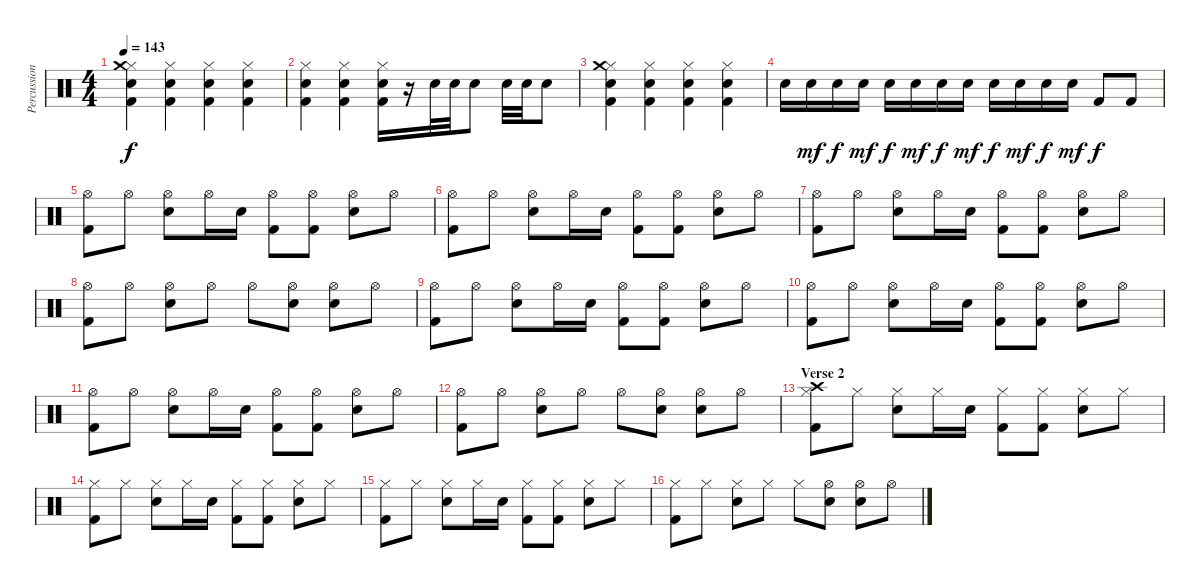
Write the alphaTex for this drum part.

\track ("Percussion" "Percussion") {instrument percussion}
\staff {score}
\articulation defaults
\ts (4 4)
\tempo 143
\clef neutral
\ks c
("Hi-Hat (closed)" "Crash medium (hit)" "Electric Snare (hit)" "Kick (hit) 2").4{dy f} ("Hi-Hat (closed)" "Electric Snare (hit)" "Kick (hit) 2").4 ("Hi-Hat (closed)" "Electric Snare (hit)" "Kick (hit) 2").4 ("Hi-Hat (closed)" "Electric Snare (hit)" "Kick (hit) 2").4 |
("Hi-Hat (closed)" "Electric Snare (hit)" "Kick (hit) 2").4 ("Hi-Hat (closed)" "Electric Snare (hit)" "Kick (hit) 2").4 ("Hi-Hat (closed)" "Electric Snare (hit)" "Kick (hit) 2").16 r.16 "Electric Snare (hit)".32 "Electric Snare (hit)".32 "Electric Snare (hit)".8 "Electric Snare (hit)".32 "Electric Snare (hit)".32 "Electric Snare (hit)".8 |
("Hi-Hat (closed)" "Crash medium (hit)" "Electric Snare (hit)" "Kick (hit) 2").4 ("Hi-Hat (closed)" "Electric Snare (hit)" "Kick (hit) 2").4 ("Hi-Hat (closed)" "Electric Snare (hit)" "Kick (hit) 2").4 ("Hi-Hat (closed)" "Electric Snare (hit)" "Kick (hit) 2").4 |
"Electric Snare (hit)".16 "Electric Snare (hit)".16{dy mf} "Electric Snare (hit)".16{dy f} "Electric Snare (hit)".16{dy mf} "Electric Snare (hit)".16{dy f} "Electric Snare (hit)".16{dy mf} "Electric Snare (hit)".16{dy f} "Electric Snare (hit)".16{dy mf} "Electric Snare (hit)".16{dy f} "Electric Snare (hit)".16{dy mf} "Electric Snare (hit)".16{dy f} "Electric Snare (hit)".16{dy mf} "Kick (hit) 2".8{dy f} "Kick (hit) 2".8 |
("Hi-Hat (open)" "Kick (hit) 2").8 "Hi-Hat (open)".8 ("Hi-Hat (open)" "Electric Snare (hit)").8 "Hi-Hat (open)".16 "Electric Snare (hit)".16 ("Hi-Hat (open)" "Kick (hit) 2").8 ("Hi-Hat (open)" "Kick (hit) 2").8 ("Hi-Hat (open)" "Electric Snare (hit)").8 "Hi-Hat (open)".8 |
("Hi-Hat (open)" "Kick (hit) 2").8 "Hi-Hat (open)".8 ("Hi-Hat (open)" "Electric Snare (hit)").8 "Hi-Hat (open)".16 "Electric Snare (hit)".16 ("Hi-Hat (open)" "Kick (hit) 2").8 ("Hi-Hat (open)" "Kick (hit) 2").8 ("Hi-Hat (open)" "Electric Snare (hit)").8 "Hi-Hat (open)".8 |
("Hi-Hat (open)" "Kick (hit) 2").8 "Hi-Hat (open)".8 ("Hi-Hat (open)" "Electric Snare (hit)").8 "Hi-Hat (open)".16 "Electric Snare (hit)".16 ("Hi-Hat (open)" "Kick (hit) 2").8 ("Hi-Hat (open)" "Kick (hit) 2").8 ("Hi-Hat (open)" "Electric Snare (hit)").8 "Hi-Hat (open)".8 |
("Hi-Hat (open)" "Kick (hit) 2").8 "Hi-Hat (open)".8 ("Hi-Hat (open)" "Electric Snare (hit)").8 "Hi-Hat (open)".8 "Hi-Hat (open)".8 ("Hi-Hat (open)" "Electric Snare (hit)").8 ("Hi-Hat (open)" "Electric Snare (hit)").8 "Hi-Hat (open)".8 |
("Hi-Hat (open)" "Kick (hit) 2").8 "Hi-Hat (open)".8 ("Hi-Hat (open)" "Electric Snare (hit)").8 "Hi-Hat (open)".16 "Electric Snare (hit)".16 ("Hi-Hat (open)" "Kick (hit) 2").8 ("Hi-Hat (open)" "Kick (hit) 2").8 ("Hi-Hat (open)" "Electric Snare (hit)").8 "Hi-Hat (open)".8 |
("Hi-Hat (open)" "Kick (hit) 2").8 "Hi-Hat (open)".8 ("Hi-Hat (open)" "Electric Snare (hit)").8 "Hi-Hat (open)".16 "Electric Snare (hit)".16 ("Hi-Hat (open)" "Kick (hit) 2").8 ("Hi-Hat (open)" "Kick (hit) 2").8 ("Hi-Hat (open)" "Electric Snare (hit)").8 "Hi-Hat (open)".8 |
("Hi-Hat (open)" "Kick (hit) 2").8 "Hi-Hat (open)".8 ("Hi-Hat (open)" "Electric Snare (hit)").8 "Hi-Hat (open)".16 "Electric Snare (hit)".16 ("Hi-Hat (open)" "Kick (hit) 2").8 ("Hi-Hat (open)" "Kick (hit) 2").8 ("Hi-Hat (open)" "Electric Snare (hit)").8 "Hi-Hat (open)".8 |
("Hi-Hat (open)" "Kick (hit) 2").8 "Hi-Hat (open)".8 ("Hi-Hat (open)" "Electric Snare (hit)").8 "Hi-Hat (open)".8 "Hi-Hat (open)".8 ("Hi-Hat (open)" "Electric Snare (hit)").8 ("Hi-Hat (open)" "Electric Snare (hit)").8 "Hi-Hat (open)".8 |
\section ("" "Verse 2")
("Hi-Hat (closed)" "Crash high (hit)" "Kick (hit) 2").8 "Hi-Hat (closed)".8 ("Hi-Hat (closed)" "Electric Snare (hit)").8 "Hi-Hat (closed)".16 "Electric Snare (hit)".16 ("Hi-Hat (closed)" "Kick (hit) 2").8 ("Hi-Hat (closed)" "Kick (hit) 2").8 ("Hi-Hat (closed)" "Electric Snare (hit)").8 "Hi-Hat (closed)".8 |
("Hi-Hat (closed)" "Kick (hit) 2").8 "Hi-Hat (closed)".8 ("Hi-Hat (closed)" "Electric Snare (hit)").8 "Hi-Hat (closed)".16 "Electric Snare (hit)".16 ("Hi-Hat (closed)" "Kick (hit) 2").8 ("Hi-Hat (closed)" "Kick (hit) 2").8 ("Hi-Hat (closed)" "Electric Snare (hit)").8 "Hi-Hat (closed)".8 |
("Hi-Hat (closed)" "Kick (hit) 2").8 "Hi-Hat (closed)".8 ("Hi-Hat (closed)" "Electric Snare (hit)").8 "Hi-Hat (closed)".16 "Electric Snare (hit)".16 ("Hi-Hat (closed)" "Kick (hit) 2").8 ("Hi-Hat (closed)" "Kick (hit) 2").8 ("Hi-Hat (closed)" "Electric Snare (hit)").8 "Hi-Hat (closed)".8 |
("Hi-Hat (closed)" "Kick (hit) 2").8 "Hi-Hat (closed)".8 ("Hi-Hat (closed)" "Electric Snare (hit)").8 "Hi-Hat (closed)".8 "Hi-Hat (closed)".8 ("Hi-Hat (open)" "Electric Snare (hit)").8 ("Hi-Hat (open)" "Electric Snare (hit)").8 "Hi-Hat (open)".8
